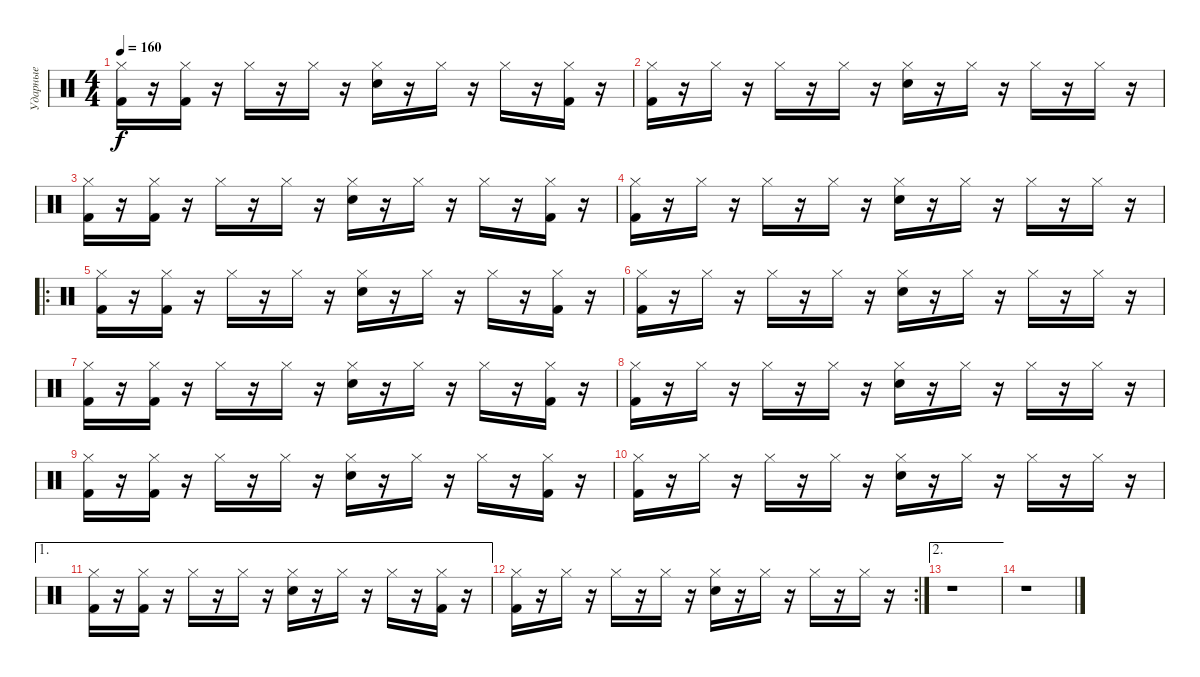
\track ("Ударные" "Ударные") {instrument percussion}
\staff {score}
\articulation defaults
\ts (4 4)
\tempo 160
\clef neutral
\ks c
("Kick (hit) 2" "Hi-Hat (closed)").16{dy f} r.16 ("Kick (hit) 2" "Hi-Hat (closed)").16 r.16 "Hi-Hat (closed)".16 r.16 "Hi-Hat (closed)".16 r.16 ("Snare (hit) 2" "Hi-Hat (closed)").16 r.16 "Hi-Hat (closed)".16 r.16 "Hi-Hat (closed)".16 r.16 ("Kick (hit) 2" "Hi-Hat (closed)").16 r.16 |
("Kick (hit) 2" "Hi-Hat (closed)").16 r.16 "Hi-Hat (closed)".16 r.16 "Hi-Hat (closed)".16 r.16 "Hi-Hat (closed)".16 r.16 ("Snare (hit) 2" "Hi-Hat (closed)").16 r.16 "Hi-Hat (closed)".16 r.16 "Hi-Hat (closed)".16 r.16 "Hi-Hat (closed)".16 r.16 |
("Kick (hit) 2" "Hi-Hat (closed)").16 r.16 ("Kick (hit) 2" "Hi-Hat (closed)").16 r.16 "Hi-Hat (closed)".16 r.16 "Hi-Hat (closed)".16 r.16 ("Snare (hit) 2" "Hi-Hat (closed)").16 r.16 "Hi-Hat (closed)".16 r.16 "Hi-Hat (closed)".16 r.16 ("Kick (hit) 2" "Hi-Hat (closed)").16 r.16 |
("Kick (hit) 2" "Hi-Hat (closed)").16 r.16 "Hi-Hat (closed)".16 r.16 "Hi-Hat (closed)".16 r.16 "Hi-Hat (closed)".16 r.16 ("Snare (hit) 2" "Hi-Hat (closed)").16 r.16 "Hi-Hat (closed)".16 r.16 "Hi-Hat (closed)".16 r.16 "Hi-Hat (closed)".16 r.16 |
\ro
("Kick (hit) 2" "Hi-Hat (closed)").16 r.16 ("Kick (hit) 2" "Hi-Hat (closed)").16 r.16 "Hi-Hat (closed)".16 r.16 "Hi-Hat (closed)".16 r.16 ("Snare (hit) 2" "Hi-Hat (closed)").16 r.16 "Hi-Hat (closed)".16 r.16 "Hi-Hat (closed)".16 r.16 ("Kick (hit) 2" "Hi-Hat (closed)").16 r.16 |
("Kick (hit) 2" "Hi-Hat (closed)").16 r.16 "Hi-Hat (closed)".16 r.16 "Hi-Hat (closed)".16 r.16 "Hi-Hat (closed)".16 r.16 ("Snare (hit) 2" "Hi-Hat (closed)").16 r.16 "Hi-Hat (closed)".16 r.16 "Hi-Hat (closed)".16 r.16 "Hi-Hat (closed)".16 r.16 |
("Kick (hit) 2" "Hi-Hat (closed)").16 r.16 ("Kick (hit) 2" "Hi-Hat (closed)").16 r.16 "Hi-Hat (closed)".16 r.16 "Hi-Hat (closed)".16 r.16 ("Snare (hit) 2" "Hi-Hat (closed)").16 r.16 "Hi-Hat (closed)".16 r.16 "Hi-Hat (closed)".16 r.16 ("Kick (hit) 2" "Hi-Hat (closed)").16 r.16 |
("Kick (hit) 2" "Hi-Hat (closed)").16 r.16 "Hi-Hat (closed)".16 r.16 "Hi-Hat (closed)".16 r.16 "Hi-Hat (closed)".16 r.16 ("Snare (hit) 2" "Hi-Hat (closed)").16 r.16 "Hi-Hat (closed)".16 r.16 "Hi-Hat (closed)".16 r.16 "Hi-Hat (closed)".16 r.16 |
("Kick (hit) 2" "Hi-Hat (closed)").16 r.16 ("Kick (hit) 2" "Hi-Hat (closed)").16 r.16 "Hi-Hat (closed)".16 r.16 "Hi-Hat (closed)".16 r.16 ("Snare (hit) 2" "Hi-Hat (closed)").16 r.16 "Hi-Hat (closed)".16 r.16 "Hi-Hat (closed)".16 r.16 ("Kick (hit) 2" "Hi-Hat (closed)").16 r.16 |
("Kick (hit) 2" "Hi-Hat (closed)").16 r.16 "Hi-Hat (closed)".16 r.16 "Hi-Hat (closed)".16 r.16 "Hi-Hat (closed)".16 r.16 ("Snare (hit) 2" "Hi-Hat (closed)").16 r.16 "Hi-Hat (closed)".16 r.16 "Hi-Hat (closed)".16 r.16 "Hi-Hat (closed)".16 r.16 |
\ae 1
("Kick (hit) 2" "Hi-Hat (closed)").16 r.16 ("Kick (hit) 2" "Hi-Hat (closed)").16 r.16 "Hi-Hat (closed)".16 r.16 "Hi-Hat (closed)".16 r.16 ("Snare (hit) 2" "Hi-Hat (closed)").16 r.16 "Hi-Hat (closed)".16 r.16 "Hi-Hat (closed)".16 r.16 ("Kick (hit) 2" "Hi-Hat (closed)").16 r.16 |
\rc 2
("Kick (hit) 2" "Hi-Hat (closed)").16 r.16 "Hi-Hat (closed)".16 r.16 "Hi-Hat (closed)".16 r.16 "Hi-Hat (closed)".16 r.16 ("Snare (hit) 2" "Hi-Hat (closed)").16 r.16 "Hi-Hat (closed)".16 r.16 "Hi-Hat (closed)".16 r.16 "Hi-Hat (closed)".16 r.16 |
\ae 2
r.1 |
r.1
